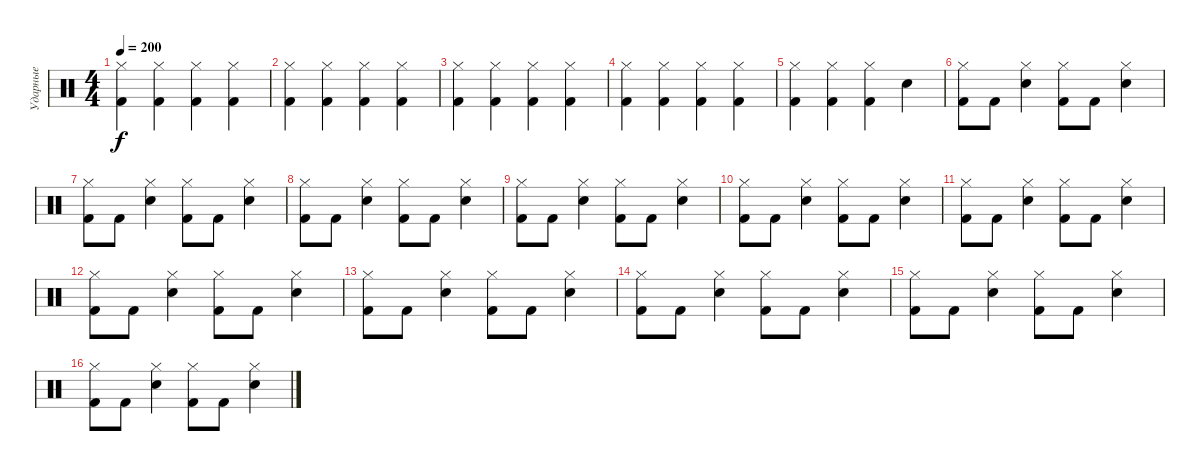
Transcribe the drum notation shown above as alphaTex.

\track ("Ударные" "Ударные") {instrument percussion}
\staff {score}
\articulation defaults
\ts (4 4)
\tempo 200
\clef neutral
\ks c
("Kick (hit) 2" "Hi-Hat (closed)").4{dy f} ("Kick (hit) 2" "Hi-Hat (closed)").4 ("Kick (hit) 2" "Hi-Hat (closed)").4 ("Kick (hit) 2" "Hi-Hat (closed)").4 |
("Kick (hit) 2" "Hi-Hat (closed)").4 ("Kick (hit) 2" "Hi-Hat (closed)").4 ("Kick (hit) 2" "Hi-Hat (closed)").4 ("Kick (hit) 2" "Hi-Hat (closed)").4 |
("Kick (hit) 2" "Hi-Hat (closed)").4 ("Kick (hit) 2" "Hi-Hat (closed)").4 ("Kick (hit) 2" "Hi-Hat (closed)").4 ("Kick (hit) 2" "Hi-Hat (closed)").4 |
("Kick (hit) 2" "Hi-Hat (closed)").4 ("Kick (hit) 2" "Hi-Hat (closed)").4 ("Kick (hit) 2" "Hi-Hat (closed)").4 ("Kick (hit) 2" "Hi-Hat (closed)").4 |
("Kick (hit) 2" "Hi-Hat (closed)").4 ("Kick (hit) 2" "Hi-Hat (closed)").4 ("Kick (hit) 2" "Hi-Hat (closed)").4 "Snare (hit) 2".4 |
("Kick (hit) 2" "Hi-Hat (closed)").8 "Kick (hit) 2".8 ("Snare (hit) 2" "Hi-Hat (closed)").4 ("Kick (hit) 2" "Hi-Hat (closed)").8 "Kick (hit) 2".8 ("Snare (hit) 2" "Hi-Hat (closed)").4 |
("Kick (hit) 2" "Hi-Hat (closed)").8 "Kick (hit) 2".8 ("Snare (hit) 2" "Hi-Hat (closed)").4 ("Kick (hit) 2" "Hi-Hat (closed)").8 "Kick (hit) 2".8 ("Snare (hit) 2" "Hi-Hat (closed)").4 |
("Kick (hit) 2" "Hi-Hat (closed)").8 "Kick (hit) 2".8 ("Snare (hit) 2" "Hi-Hat (closed)").4 ("Kick (hit) 2" "Hi-Hat (closed)").8 "Kick (hit) 2".8 ("Snare (hit) 2" "Hi-Hat (closed)").4 |
("Kick (hit) 2" "Hi-Hat (closed)").8 "Kick (hit) 2".8 ("Snare (hit) 2" "Hi-Hat (closed)").4 ("Kick (hit) 2" "Hi-Hat (closed)").8 "Kick (hit) 2".8 ("Snare (hit) 2" "Hi-Hat (closed)").4 |
("Kick (hit) 2" "Hi-Hat (closed)").8 "Kick (hit) 2".8 ("Snare (hit) 2" "Hi-Hat (closed)").4 ("Kick (hit) 2" "Hi-Hat (closed)").8 "Kick (hit) 2".8 ("Snare (hit) 2" "Hi-Hat (closed)").4 |
("Kick (hit) 2" "Hi-Hat (closed)").8 "Kick (hit) 2".8 ("Snare (hit) 2" "Hi-Hat (closed)").4 ("Kick (hit) 2" "Hi-Hat (closed)").8 "Kick (hit) 2".8 ("Snare (hit) 2" "Hi-Hat (closed)").4 |
("Kick (hit) 2" "Hi-Hat (closed)").8 "Kick (hit) 2".8 ("Snare (hit) 2" "Hi-Hat (closed)").4 ("Kick (hit) 2" "Hi-Hat (closed)").8 "Kick (hit) 2".8 ("Snare (hit) 2" "Hi-Hat (closed)").4 |
("Kick (hit) 2" "Hi-Hat (closed)").8 "Kick (hit) 2".8 ("Snare (hit) 2" "Hi-Hat (closed)").4 ("Kick (hit) 2" "Hi-Hat (closed)").8 "Kick (hit) 2".8 ("Snare (hit) 2" "Hi-Hat (closed)").4 |
("Kick (hit) 2" "Hi-Hat (closed)").8 "Kick (hit) 2".8 ("Snare (hit) 2" "Hi-Hat (closed)").4 ("Kick (hit) 2" "Hi-Hat (closed)").8 "Kick (hit) 2".8 ("Snare (hit) 2" "Hi-Hat (closed)").4 |
("Kick (hit) 2" "Hi-Hat (closed)").8 "Kick (hit) 2".8 ("Snare (hit) 2" "Hi-Hat (closed)").4 ("Kick (hit) 2" "Hi-Hat (closed)").8 "Kick (hit) 2".8 ("Snare (hit) 2" "Hi-Hat (closed)").4 |
("Kick (hit) 2" "Hi-Hat (closed)").8 "Kick (hit) 2".8 ("Snare (hit) 2" "Hi-Hat (closed)").4 ("Kick (hit) 2" "Hi-Hat (closed)").8 "Kick (hit) 2".8 ("Snare (hit) 2" "Hi-Hat (closed)").4
